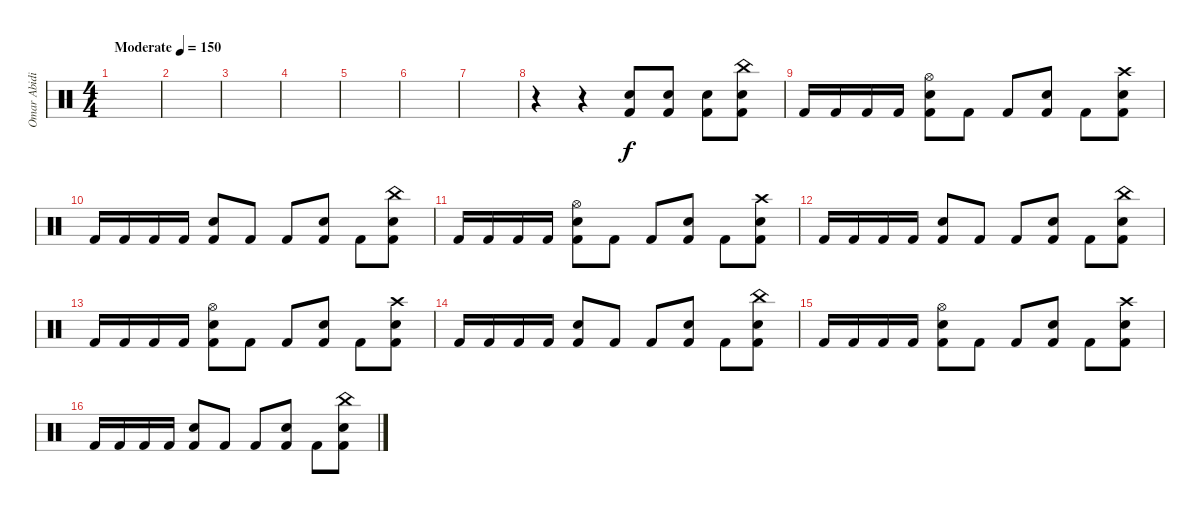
\track ("Omar Abidi" "Omar Abidi") {instrument percussion}
\staff {score}
\articulation defaults
\ts (4 4)
\tempo (150 "Moderate")
\clef neutral
\ks c
|
|
|
|
|
|
|
r.4 r.4 ("Snare (hit) 2" "Kick (hit) 2").8 ("Snare (hit) 2" "Kick (hit) 2").8 ("Snare (hit) 2" "Kick (hit) 2").8 ("China (hit)" "Snare (hit) 2" "Kick (hit) 2").8 |
"Kick (hit) 2".16 "Kick (hit) 2".16 "Kick (hit) 2".16 "Kick (hit) 2".16 ("Hi-Hat (open)" "Snare (hit) 2" "Kick (hit) 2").8 "Kick (hit) 2".8 "Kick (hit) 2".8 ("Snare (hit) 2" "Kick (hit) 2").8 "Kick (hit) 2".8 ("Crash high (hit)" "Snare (hit) 2" "Kick (hit) 2").8 |
"Kick (hit) 2".16 "Kick (hit) 2".16 "Kick (hit) 2".16 "Kick (hit) 2".16 ("Snare (hit) 2" "Kick (hit) 2").8 "Kick (hit) 2".8 "Kick (hit) 2".8 ("Snare (hit) 2" "Kick (hit) 2").8 "Kick (hit) 2".8 ("China (hit)" "Snare (hit) 2" "Kick (hit) 2").8 |
"Kick (hit) 2".16 "Kick (hit) 2".16 "Kick (hit) 2".16 "Kick (hit) 2".16 ("Hi-Hat (open)" "Snare (hit) 2" "Kick (hit) 2").8 "Kick (hit) 2".8 "Kick (hit) 2".8 ("Snare (hit) 2" "Kick (hit) 2").8 "Kick (hit) 2".8 ("Crash high (hit)" "Snare (hit) 2" "Kick (hit) 2").8 |
"Kick (hit) 2".16 "Kick (hit) 2".16 "Kick (hit) 2".16 "Kick (hit) 2".16 ("Snare (hit) 2" "Kick (hit) 2").8 "Kick (hit) 2".8 "Kick (hit) 2".8 ("Snare (hit) 2" "Kick (hit) 2").8 "Kick (hit) 2".8 ("China (hit)" "Snare (hit) 2" "Kick (hit) 2").8 |
"Kick (hit) 2".16 "Kick (hit) 2".16 "Kick (hit) 2".16 "Kick (hit) 2".16 ("Hi-Hat (open)" "Snare (hit) 2" "Kick (hit) 2").8 "Kick (hit) 2".8 "Kick (hit) 2".8 ("Snare (hit) 2" "Kick (hit) 2").8 "Kick (hit) 2".8 ("Crash high (hit)" "Snare (hit) 2" "Kick (hit) 2").8 |
"Kick (hit) 2".16 "Kick (hit) 2".16 "Kick (hit) 2".16 "Kick (hit) 2".16 ("Snare (hit) 2" "Kick (hit) 2").8 "Kick (hit) 2".8 "Kick (hit) 2".8 ("Snare (hit) 2" "Kick (hit) 2").8 "Kick (hit) 2".8 ("China (hit)" "Snare (hit) 2" "Kick (hit) 2").8 |
"Kick (hit) 2".16 "Kick (hit) 2".16 "Kick (hit) 2".16 "Kick (hit) 2".16 ("Hi-Hat (open)" "Snare (hit) 2" "Kick (hit) 2").8 "Kick (hit) 2".8 "Kick (hit) 2".8 ("Snare (hit) 2" "Kick (hit) 2").8 "Kick (hit) 2".8 ("Crash high (hit)" "Snare (hit) 2" "Kick (hit) 2").8 |
"Kick (hit) 2".16 "Kick (hit) 2".16 "Kick (hit) 2".16 "Kick (hit) 2".16 ("Snare (hit) 2" "Kick (hit) 2").8 "Kick (hit) 2".8 "Kick (hit) 2".8 ("Snare (hit) 2" "Kick (hit) 2").8 "Kick (hit) 2".8 ("China (hit)" "Snare (hit) 2" "Kick (hit) 2").8
